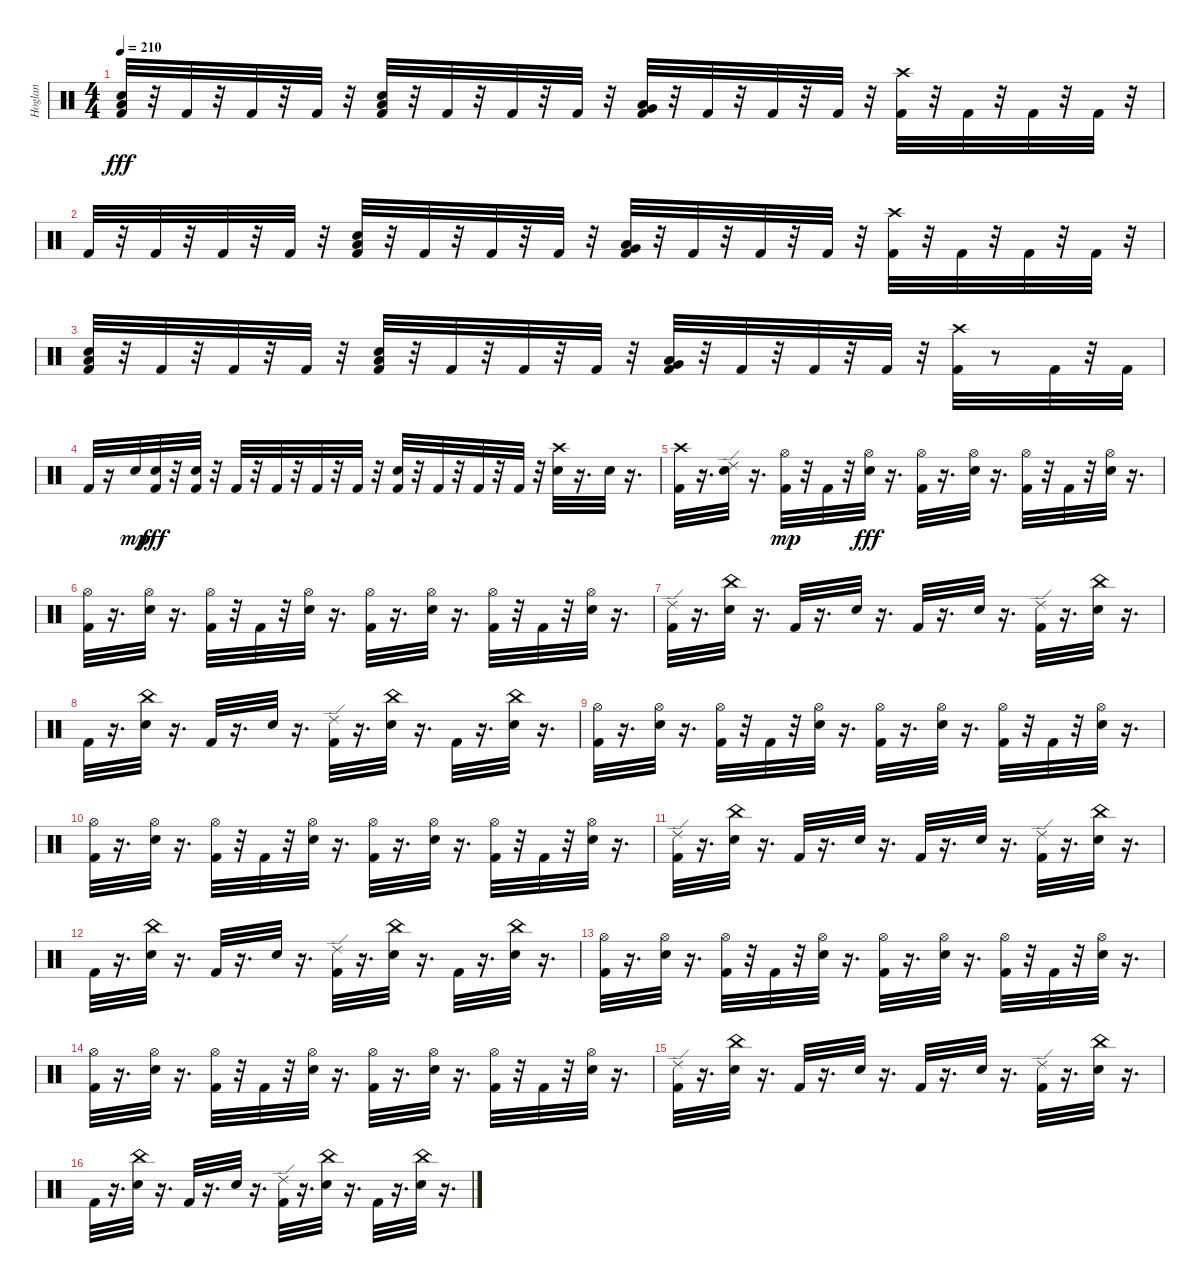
\track ("Hoglan" "Hoglan") {instrument percussion}
\staff {score}
\articulation defaults
\ts (4 4)
\tempo 210
\clef neutral
\ks c
("Electric Snare (hit)" "Low Floor Tom (hit)" "Kick (hit) 2").32{dy fff} r.32 "Kick (hit) 2".32 r.32 "Kick (hit) 2".32 r.32 "Kick (hit) 2".32 r.32 ("Electric Snare (hit)" "Low Floor Tom (hit)" "Kick (hit) 2").32 r.32 "Kick (hit) 2".32 r.32 "Kick (hit) 2".32 r.32 "Kick (hit) 2".32 r.32 ("Very Low Tom (hit)" "Low Floor Tom (hit)" "Kick (hit) 2").32 r.32 "Kick (hit) 2".32 r.32 "Kick (hit) 2".32 r.32 "Kick (hit) 2".32 r.32 ("Crash high (hit)" "Kick (hit) 2").32 r.32 "Kick (hit) 2".32 r.32 "Kick (hit) 2".32 r.32 "Kick (hit) 2".32 r.32 |
"Kick (hit) 2".32 r.32 "Kick (hit) 2".32 r.32 "Kick (hit) 2".32 r.32 "Kick (hit) 2".32 r.32 ("Electric Snare (hit)" "Low Floor Tom (hit)" "Kick (hit) 2").32 r.32 "Kick (hit) 2".32 r.32 "Kick (hit) 2".32 r.32 "Kick (hit) 2".32 r.32 ("Very Low Tom (hit)" "Low Floor Tom (hit)" "Kick (hit) 2").32 r.32 "Kick (hit) 2".32 r.32 "Kick (hit) 2".32 r.32 "Kick (hit) 2".32 r.32 ("Crash high (hit)" "Kick (hit) 2").32 r.32 "Kick (hit) 2".32 r.32 "Kick (hit) 2".32 r.32 "Kick (hit) 2".32 r.32 |
("Electric Snare (hit)" "Low Floor Tom (hit)" "Kick (hit) 2").32 r.32 "Kick (hit) 2".32 r.32 "Kick (hit) 2".32 r.32 "Kick (hit) 2".32 r.32 ("Electric Snare (hit)" "Low Floor Tom (hit)" "Kick (hit) 2").32 r.32 "Kick (hit) 2".32 r.32 "Kick (hit) 2".32 r.32 "Kick (hit) 2".32 r.32 ("Very Low Tom (hit)" "Low Floor Tom (hit)" "Kick (hit) 2").32 r.32 "Kick (hit) 2".32 r.32 "Kick (hit) 2".32 r.32 "Kick (hit) 2".32 r.32 ("Crash high (hit)" "Kick (hit) 2").32 r.8 "Kick (hit) 2".32 r.32 "Kick (hit) 2".32 |
"Kick (hit) 2".32 r.16 "Electric Snare (hit)".32{dy mp} ("Electric Snare (hit)" "Kick (hit) 2").32{dy fff} r.32 ("Electric Snare (hit)" "Kick (hit) 2").32 r.32 "Kick (hit) 2".32 r.32 "Kick (hit) 2".32 r.32 "Kick (hit) 2".32 r.32 "Kick (hit) 2".32 r.32 ("Electric Snare (hit)" "Kick (hit) 2").32 r.32 "Kick (hit) 2".32 r.32 "Kick (hit) 2".32 r.32 "Kick (hit) 2".32 r.32 ("Crash high (hit)" "Electric Snare (hit)").32 r.16{d} "Electric Snare (hit)".32 r.16{d} |
("Crash high (hit)" "Kick (hit) 2").32 r.16{d} ("Ride (edge) 2" "Electric Snare (hit)").32 r.16{d} ("Hi-Hat (open)" "Kick (hit) 2").32{dy mp} r.32 "Kick (hit) 2".32 r.32 ("Hi-Hat (open)" "Electric Snare (hit)").32{dy fff} r.16{d} ("Hi-Hat (open)" "Kick (hit) 2").32 r.16{d} ("Hi-Hat (open)" "Electric Snare (hit)").32 r.16{d} ("Hi-Hat (open)" "Kick (hit) 2").32 r.32 "Kick (hit) 2".32 r.32 ("Hi-Hat (open)" "Electric Snare (hit)").32 r.16{d} |
("Hi-Hat (open)" "Kick (hit) 2").32 r.16{d} ("Hi-Hat (open)" "Electric Snare (hit)").32 r.16{d} ("Hi-Hat (open)" "Kick (hit) 2").32 r.32 "Kick (hit) 2".32 r.32 ("Hi-Hat (open)" "Electric Snare (hit)").32 r.16{d} ("Hi-Hat (open)" "Kick (hit) 2").32 r.16{d} ("Hi-Hat (open)" "Electric Snare (hit)").32 r.16{d} ("Hi-Hat (open)" "Kick (hit) 2").32 r.32 "Kick (hit) 2".32 r.32 ("Hi-Hat (open)" "Electric Snare (hit)").32 r.16{d} |
("Ride (edge) 2" "Kick (hit) 2").32 r.16{d} ("China (hit)" "Electric Snare (hit)").32 r.16{d} "Kick (hit) 2".32 r.16{d} "Electric Snare (hit)".32 r.16{d} "Kick (hit) 2".32 r.16{d} "Electric Snare (hit)".32 r.16{d} ("Ride (edge) 2" "Kick (hit) 2").32 r.16{d} ("China (hit)" "Electric Snare (hit)").32 r.16{d} |
"Kick (hit) 2".32 r.16{d} ("China (hit)" "Electric Snare (hit)").32 r.16{d} "Kick (hit) 2".32 r.16{d} "Electric Snare (hit)".32 r.16{d} ("Ride (edge) 2" "Kick (hit) 2").32 r.16{d} ("China (hit)" "Electric Snare (hit)").32 r.16{d} "Kick (hit) 2".32 r.16{d} ("China (hit)" "Electric Snare (hit)").32 r.16{d} |
("Hi-Hat (open)" "Kick (hit) 2").32 r.16{d} ("Hi-Hat (open)" "Electric Snare (hit)").32 r.16{d} ("Hi-Hat (open)" "Kick (hit) 2").32 r.32 "Kick (hit) 2".32 r.32 ("Hi-Hat (open)" "Electric Snare (hit)").32 r.16{d} ("Hi-Hat (open)" "Kick (hit) 2").32 r.16{d} ("Hi-Hat (open)" "Electric Snare (hit)").32 r.16{d} ("Hi-Hat (open)" "Kick (hit) 2").32 r.32 "Kick (hit) 2".32 r.32 ("Hi-Hat (open)" "Electric Snare (hit)").32 r.16{d} |
("Hi-Hat (open)" "Kick (hit) 2").32 r.16{d} ("Hi-Hat (open)" "Electric Snare (hit)").32 r.16{d} ("Hi-Hat (open)" "Kick (hit) 2").32 r.32 "Kick (hit) 2".32 r.32 ("Hi-Hat (open)" "Electric Snare (hit)").32 r.16{d} ("Hi-Hat (open)" "Kick (hit) 2").32 r.16{d} ("Hi-Hat (open)" "Electric Snare (hit)").32 r.16{d} ("Hi-Hat (open)" "Kick (hit) 2").32 r.32 "Kick (hit) 2".32 r.32 ("Hi-Hat (open)" "Electric Snare (hit)").32 r.16{d} |
("Ride (edge) 2" "Kick (hit) 2").32 r.16{d} ("China (hit)" "Electric Snare (hit)").32 r.16{d} "Kick (hit) 2".32 r.16{d} "Electric Snare (hit)".32 r.16{d} "Kick (hit) 2".32 r.16{d} "Electric Snare (hit)".32 r.16{d} ("Ride (edge) 2" "Kick (hit) 2").32 r.16{d} ("China (hit)" "Electric Snare (hit)").32 r.16{d} |
"Kick (hit) 2".32 r.16{d} ("China (hit)" "Electric Snare (hit)").32 r.16{d} "Kick (hit) 2".32 r.16{d} "Electric Snare (hit)".32 r.16{d} ("Ride (edge) 2" "Kick (hit) 2").32 r.16{d} ("China (hit)" "Electric Snare (hit)").32 r.16{d} "Kick (hit) 2".32 r.16{d} ("China (hit)" "Electric Snare (hit)").32 r.16{d} |
("Hi-Hat (open)" "Kick (hit) 2").32 r.16{d} ("Hi-Hat (open)" "Electric Snare (hit)").32 r.16{d} ("Hi-Hat (open)" "Kick (hit) 2").32 r.32 "Kick (hit) 2".32 r.32 ("Hi-Hat (open)" "Electric Snare (hit)").32 r.16{d} ("Hi-Hat (open)" "Kick (hit) 2").32 r.16{d} ("Hi-Hat (open)" "Electric Snare (hit)").32 r.16{d} ("Hi-Hat (open)" "Kick (hit) 2").32 r.32 "Kick (hit) 2".32 r.32 ("Hi-Hat (open)" "Electric Snare (hit)").32 r.16{d} |
("Hi-Hat (open)" "Kick (hit) 2").32 r.16{d} ("Hi-Hat (open)" "Electric Snare (hit)").32 r.16{d} ("Hi-Hat (open)" "Kick (hit) 2").32 r.32 "Kick (hit) 2".32 r.32 ("Hi-Hat (open)" "Electric Snare (hit)").32 r.16{d} ("Hi-Hat (open)" "Kick (hit) 2").32 r.16{d} ("Hi-Hat (open)" "Electric Snare (hit)").32 r.16{d} ("Hi-Hat (open)" "Kick (hit) 2").32 r.32 "Kick (hit) 2".32 r.32 ("Hi-Hat (open)" "Electric Snare (hit)").32 r.16{d} |
("Ride (edge) 2" "Kick (hit) 2").32 r.16{d} ("China (hit)" "Electric Snare (hit)").32 r.16{d} "Kick (hit) 2".32 r.16{d} "Electric Snare (hit)".32 r.16{d} "Kick (hit) 2".32 r.16{d} "Electric Snare (hit)".32 r.16{d} ("Ride (edge) 2" "Kick (hit) 2").32 r.16{d} ("China (hit)" "Electric Snare (hit)").32 r.16{d} |
"Kick (hit) 2".32 r.16{d} ("China (hit)" "Electric Snare (hit)").32 r.16{d} "Kick (hit) 2".32 r.16{d} "Electric Snare (hit)".32 r.16{d} ("Ride (edge) 2" "Kick (hit) 2").32 r.16{d} ("China (hit)" "Electric Snare (hit)").32 r.16{d} "Kick (hit) 2".32 r.16{d} ("China (hit)" "Electric Snare (hit)").32 r.16{d}
